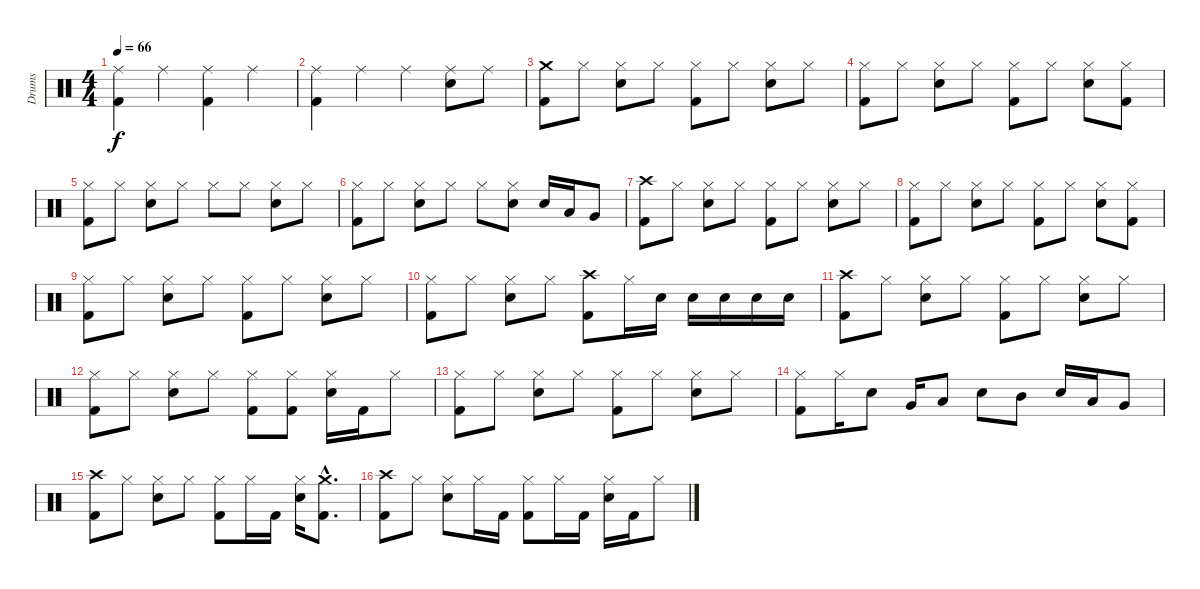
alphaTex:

\track ("Drums" "Drums") {instrument percussion}
\staff {score}
\articulation defaults
\ts (4 4)
\tempo 66
\clef neutral
\ks c
("Ride (middle)" "Kick (hit) 2").4{dy f} "Ride (middle)".4 ("Ride (middle)" "Kick (hit) 2").4 "Ride (middle)".4 |
("Ride (middle)" "Kick (hit) 2").4 "Ride (middle)".4 "Ride (middle)".4 ("Ride (middle)" "Snare (hit) 2").8 "Ride (middle)".8 |
("Crash medium (hit)" "Kick (hit) 2").8 "Hi-Hat (closed)".8 ("Hi-Hat (closed)" "Snare (hit) 2").8 "Hi-Hat (closed)".8 ("Hi-Hat (closed)" "Kick (hit) 2").8 "Hi-Hat (closed)".8 ("Hi-Hat (closed)" "Snare (hit) 2").8 "Hi-Hat (closed)".8 |
("Hi-Hat (closed)" "Kick (hit) 2").8 "Hi-Hat (closed)".8 ("Hi-Hat (closed)" "Snare (hit) 2").8 "Hi-Hat (closed)".8 ("Hi-Hat (closed)" "Kick (hit) 2").8 "Hi-Hat (closed)".8 ("Hi-Hat (closed)" "Snare (hit) 2").8 ("Hi-Hat (closed)" "Kick (hit) 2").8 |
("Hi-Hat (closed)" "Kick (hit) 2").8 "Hi-Hat (closed)".8 ("Hi-Hat (closed)" "Snare (hit) 2").8 "Hi-Hat (closed)".8 "Hi-Hat (closed)".8 "Hi-Hat (closed)".8 ("Hi-Hat (closed)" "Snare (hit) 2").8 "Hi-Hat (closed)".8 |
("Hi-Hat (closed)" "Kick (hit) 2").8 "Hi-Hat (closed)".8 ("Hi-Hat (closed)" "Snare (hit) 2").8 "Hi-Hat (closed)".8 "Hi-Hat (closed)".8 ("Hi-Hat (closed)" "Snare (hit) 2").8 "Snare (hit) 2".16 "Low Tom (hit)".16 "Very Low Tom (hit)".8 |
("Crash high (hit)" "Kick (hit) 2").8 "Hi-Hat (closed)".8 ("Hi-Hat (closed)" "Snare (hit) 2").8 "Hi-Hat (closed)".8 ("Hi-Hat (closed)" "Kick (hit) 2").8 "Hi-Hat (closed)".8 ("Hi-Hat (closed)" "Snare (hit) 2").8 "Hi-Hat (closed)".8 |
("Hi-Hat (closed)" "Kick (hit) 2").8 "Hi-Hat (closed)".8 ("Hi-Hat (closed)" "Snare (hit) 2").8 "Hi-Hat (closed)".8 ("Hi-Hat (closed)" "Kick (hit) 2").8 "Hi-Hat (closed)".8 ("Hi-Hat (closed)" "Snare (hit) 2").8 ("Hi-Hat (closed)" "Kick (hit) 2").8 |
("Hi-Hat (closed)" "Kick (hit) 2").8 "Hi-Hat (closed)".8 ("Hi-Hat (closed)" "Snare (hit) 2").8 "Hi-Hat (closed)".8 ("Hi-Hat (closed)" "Kick (hit) 2").8 "Hi-Hat (closed)".8 ("Hi-Hat (closed)" "Snare (hit) 2").8 "Hi-Hat (closed)".8 |
("Hi-Hat (closed)" "Kick (hit) 2").8 "Hi-Hat (closed)".8 ("Hi-Hat (closed)" "Snare (hit) 2").8 "Hi-Hat (closed)".8 ("Crash high (hit)" "Kick (hit) 2").8 "Hi-Hat (closed)".16 "Snare (hit) 2".16 "Snare (hit) 2".16 "Snare (hit) 2".16 "Snare (hit) 2".16 "Snare (hit) 2".16 |
("Crash high (hit)" "Kick (hit) 2").8 "Hi-Hat (closed)".8 ("Hi-Hat (closed)" "Snare (hit) 2").8 "Hi-Hat (closed)".8 ("Hi-Hat (closed)" "Kick (hit) 2").8 "Hi-Hat (closed)".8 ("Hi-Hat (closed)" "Snare (hit) 2").8 "Hi-Hat (closed)".8 |
("Hi-Hat (closed)" "Kick (hit) 2").8 "Hi-Hat (closed)".8 ("Hi-Hat (closed)" "Snare (hit) 2").8 "Hi-Hat (closed)".8 ("Hi-Hat (closed)" "Kick (hit) 2").8 ("Hi-Hat (closed)" "Kick (hit) 2").8 ("Hi-Hat (closed)" "Snare (hit) 2").16 "Kick (hit) 2".16 "Hi-Hat (closed)".8 |
("Hi-Hat (closed)" "Kick (hit) 2").8 "Hi-Hat (closed)".8 ("Hi-Hat (closed)" "Snare (hit) 2").8 "Hi-Hat (closed)".8 ("Hi-Hat (closed)" "Kick (hit) 2").8 "Hi-Hat (closed)".8 ("Hi-Hat (closed)" "Snare (hit) 2").8 "Hi-Hat (closed)".8 |
("Hi-Hat (closed)" "Kick (hit) 2").8 "Hi-Hat (closed)".16 "Snare (hit) 2".8 "Very Low Tom (hit)".16 "Low Tom (hit)".8 "Snare (hit) 2".8 "Mid Tom (hit)".8 "Snare (hit) 2".16 "Low Tom (hit)".16 "Very Low Tom (hit)".8 |
("Crash high (hit)" "Kick (hit) 2").8 "Hi-Hat (closed)".8 ("Hi-Hat (closed)" "Snare (hit) 2").8 "Hi-Hat (closed)".8 ("Hi-Hat (closed)" "Kick (hit) 2").8 "Hi-Hat (closed)".16 "Kick (hit) 2".16 ("Hi-Hat (closed)" "Snare (hit) 2").16 ("Crash medium (hit)"{hac} "Kick (hit) 2"{hac}).8{d} |
("Crash high (hit)" "Kick (hit) 2").8 "Hi-Hat (closed)".8 ("Hi-Hat (closed)" "Snare (hit) 2").8 "Hi-Hat (closed)".16 "Kick (hit) 2".16 ("Hi-Hat (closed)" "Kick (hit) 2").8 "Hi-Hat (closed)".16 "Kick (hit) 2".16 ("Hi-Hat (closed)" "Snare (hit) 2").16 "Kick (hit) 2".16 "Hi-Hat (closed)".8
